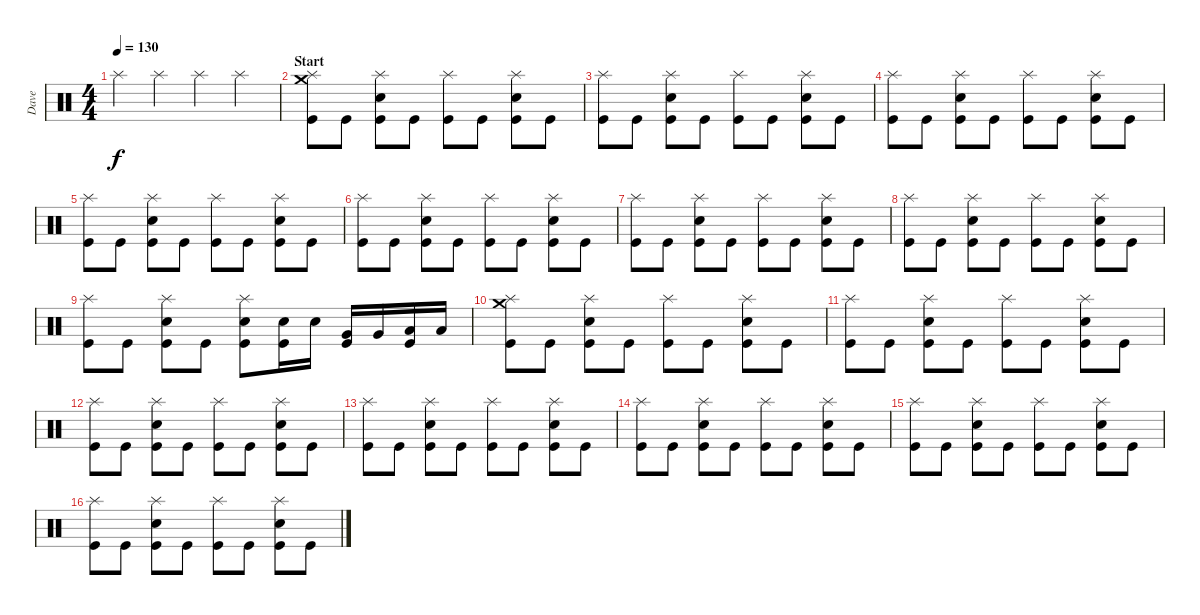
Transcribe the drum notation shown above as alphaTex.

\track ("Dave" "Dave") {instrument percussion}
\staff {score}
\articulation defaults
\ts (4 4)
\tempo 130
\clef neutral
\ks c "Splash (hit)".4{dy f} "Splash (hit)".4 "Splash (hit)".4 "Splash (hit)".4
|
\section ("" "Start")
("Crash medium (hit)" "Splash (hit)" "Kick (hit)").8 "Kick (hit)".8 ("Splash (hit)" "Electric Snare (hit)" "Kick (hit)").8 "Kick (hit)".8 ("Splash (hit)" "Kick (hit)").8 "Kick (hit)".8 ("Splash (hit)" "Electric Snare (hit)" "Kick (hit)").8 "Kick (hit)".8 |
("Splash (hit)" "Kick (hit)").8 "Kick (hit)".8 ("Splash (hit)" "Electric Snare (hit)" "Kick (hit)").8 "Kick (hit)".8 ("Splash (hit)" "Kick (hit)").8 "Kick (hit)".8 ("Splash (hit)" "Electric Snare (hit)" "Kick (hit)").8 "Kick (hit)".8 |
("Splash (hit)" "Kick (hit)").8 "Kick (hit)".8 ("Splash (hit)" "Electric Snare (hit)" "Kick (hit)").8 "Kick (hit)".8 ("Splash (hit)" "Kick (hit)").8 "Kick (hit)".8 ("Splash (hit)" "Electric Snare (hit)" "Kick (hit)").8 "Kick (hit)".8 |
("Splash (hit)" "Kick (hit)").8 "Kick (hit)".8 ("Splash (hit)" "Electric Snare (hit)" "Kick (hit)").8 "Kick (hit)".8 ("Splash (hit)" "Kick (hit)").8 "Kick (hit)".8 ("Splash (hit)" "Electric Snare (hit)" "Kick (hit)").8 "Kick (hit)".8 |
("Splash (hit)" "Kick (hit)").8 "Kick (hit)".8 ("Splash (hit)" "Electric Snare (hit)" "Kick (hit)").8 "Kick (hit)".8 ("Splash (hit)" "Kick (hit)").8 "Kick (hit)".8 ("Splash (hit)" "Electric Snare (hit)" "Kick (hit)").8 "Kick (hit)".8 |
("Splash (hit)" "Kick (hit)").8 "Kick (hit)".8 ("Splash (hit)" "Electric Snare (hit)" "Kick (hit)").8 "Kick (hit)".8 ("Splash (hit)" "Kick (hit)").8 "Kick (hit)".8 ("Splash (hit)" "Electric Snare (hit)" "Kick (hit)").8 "Kick (hit)".8 |
("Splash (hit)" "Kick (hit)").8 "Kick (hit)".8 ("Splash (hit)" "Electric Snare (hit)" "Kick (hit)").8 "Kick (hit)".8 ("Splash (hit)" "Kick (hit)").8 "Kick (hit)".8 ("Splash (hit)" "Electric Snare (hit)" "Kick (hit)").8 "Kick (hit)".8 |
("Splash (hit)" "Kick (hit)").8 "Kick (hit)".8 ("Splash (hit)" "Electric Snare (hit)" "Kick (hit)").8 "Kick (hit)".8 ("Splash (hit)" "Electric Snare (hit)" "Kick (hit)").8 ("Electric Snare (hit)" "Kick (hit)").16 "Electric Snare (hit)".16 ("Very Low Tom (hit)" "Kick (hit)").16 "Very Low Tom (hit)".16 ("Low Floor Tom (hit)" "Kick (hit)").16 "Low Floor Tom (hit)".16 |
\section ("" "")
("Crash medium (hit)" "Splash (hit)" "Kick (hit)").8 "Kick (hit)".8 ("Splash (hit)" "Electric Snare (hit)" "Kick (hit)").8 "Kick (hit)".8 ("Splash (hit)" "Kick (hit)").8 "Kick (hit)".8 ("Splash (hit)" "Electric Snare (hit)" "Kick (hit)").8 "Kick (hit)".8 |
("Splash (hit)" "Kick (hit)").8 "Kick (hit)".8 ("Splash (hit)" "Electric Snare (hit)" "Kick (hit)").8 "Kick (hit)".8 ("Splash (hit)" "Kick (hit)").8 "Kick (hit)".8 ("Splash (hit)" "Electric Snare (hit)" "Kick (hit)").8 "Kick (hit)".8 |
("Splash (hit)" "Kick (hit)").8 "Kick (hit)".8 ("Splash (hit)" "Electric Snare (hit)" "Kick (hit)").8 "Kick (hit)".8 ("Splash (hit)" "Kick (hit)").8 "Kick (hit)".8 ("Splash (hit)" "Electric Snare (hit)" "Kick (hit)").8 "Kick (hit)".8 |
("Splash (hit)" "Kick (hit)").8 "Kick (hit)".8 ("Splash (hit)" "Electric Snare (hit)" "Kick (hit)").8 "Kick (hit)".8 ("Splash (hit)" "Kick (hit)").8 "Kick (hit)".8 ("Splash (hit)" "Electric Snare (hit)" "Kick (hit)").8 "Kick (hit)".8 |
("Splash (hit)" "Kick (hit)").8 "Kick (hit)".8 ("Splash (hit)" "Electric Snare (hit)" "Kick (hit)").8 "Kick (hit)".8 ("Splash (hit)" "Kick (hit)").8 "Kick (hit)".8 ("Splash (hit)" "Electric Snare (hit)" "Kick (hit)").8 "Kick (hit)".8 |
("Splash (hit)" "Kick (hit)").8 "Kick (hit)".8 ("Splash (hit)" "Electric Snare (hit)" "Kick (hit)").8 "Kick (hit)".8 ("Splash (hit)" "Kick (hit)").8 "Kick (hit)".8 ("Splash (hit)" "Electric Snare (hit)" "Kick (hit)").8 "Kick (hit)".8 |
("Splash (hit)" "Kick (hit)").8 "Kick (hit)".8 ("Splash (hit)" "Electric Snare (hit)" "Kick (hit)").8 "Kick (hit)".8 ("Splash (hit)" "Kick (hit)").8 "Kick (hit)".8 ("Splash (hit)" "Electric Snare (hit)" "Kick (hit)").8 "Kick (hit)".8
